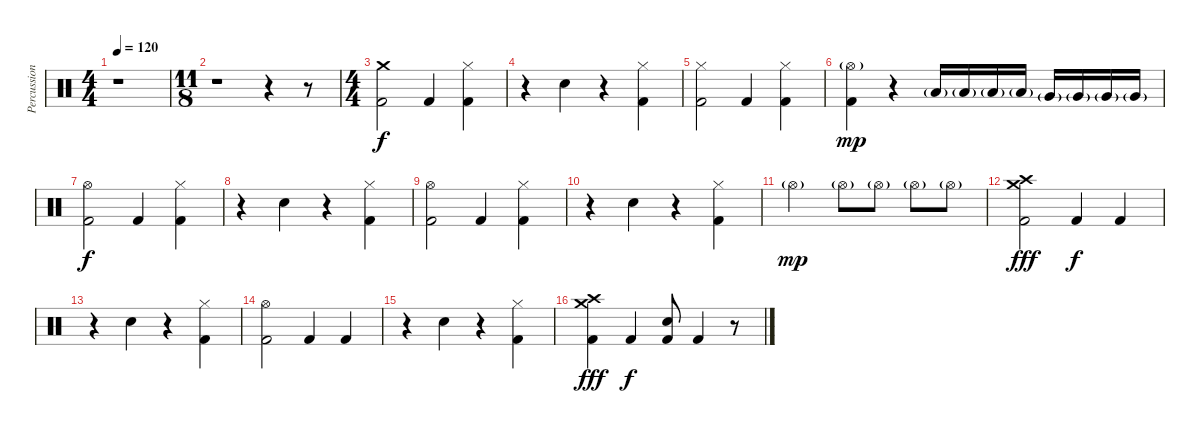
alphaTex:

\track ("Percussions" "Percussion") {instrument percussion}
\staff {score}
\articulation defaults
\ts (4 4)
\tempo 120
\clef neutral
\ks c
r.1{dy f} |
\ts (11 8)
r.1 r.4 r.8 |
\ts (4 4)
("Crash medium (hit)" "Kick (hit) 2").2 "Kick (hit) 2".4 ("Hi-Hat (closed)" "Kick (hit) 2").4 |
r.4 "Electric Snare (hit)".4 r.4 ("Hi-Hat (closed)" "Kick (hit) 2").4 |
("Hi-Hat (closed)" "Kick (hit) 2").2 "Kick (hit) 2".4 ("Hi-Hat (closed)" "Kick (hit) 2").4 |
("Hi-Hat (open)"{g} "Kick (hit) 2").4{dy mp} r.4 "Low Tom (hit)"{g}.16 "Low Tom (hit)"{g}.16 "Low Tom (hit)"{g}.16 "Low Tom (hit)"{g}.16 "Very Low Tom (hit)"{g}.16 "Very Low Tom (hit)"{g}.16 "Very Low Tom (hit)"{g}.16 "Very Low Tom (hit)"{g}.16 |
("Hi-Hat (open)" "Kick (hit) 2").2{dy f} "Kick (hit) 2".4 ("Hi-Hat (closed)" "Kick (hit) 2").4 |
r.4 "Electric Snare (hit)".4 r.4 ("Hi-Hat (closed)" "Kick (hit) 2").4 |
("Hi-Hat (open)" "Kick (hit) 2").2 "Kick (hit) 2".4 ("Hi-Hat (closed)" "Kick (hit) 2").4 |
r.4 "Electric Snare (hit)".4 r.4 ("Hi-Hat (closed)" "Kick (hit) 2").4 |
"Hi-Hat (open)"{g}.2{dy mp} "Hi-Hat (open)"{g}.8 "Hi-Hat (open)"{g}.8 "Hi-Hat (open)"{g}.8 "Hi-Hat (open)"{g}.8 |
("Crash medium (hit)" "Crash high (hit)" "Kick (hit) 2").2{dy fff} "Kick (hit) 2".4{dy f} "Kick (hit) 2".4 |
r.4 "Electric Snare (hit)".4 r.4 ("Hi-Hat (closed)" "Kick (hit) 2").4 |
("Hi-Hat (open)" "Kick (hit) 2").2 "Kick (hit) 2".4 "Kick (hit) 2".4 |
r.4 "Electric Snare (hit)".4 r.4 ("Hi-Hat (closed)" "Kick (hit) 2").4 |
("Crash medium (hit)" "Crash high (hit)" "Kick (hit) 2").4{dy fff} "Kick (hit) 2".4{dy f} ("Electric Snare (hit)" "Kick (hit) 2").8 "Kick (hit) 2".4 r.8
